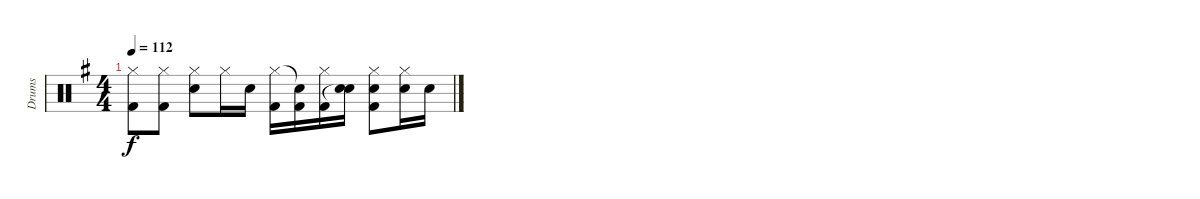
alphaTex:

\track ("Drums" "Drums") {instrument percussion}
\staff {score}
\articulation defaults
\ts (4 4)
\tempo 112
\clef neutral
\ks g
("Hi-Hat (closed)" "Kick (hit) 2").8{dy f} ("Hi-Hat (closed)" "Kick (hit) 2").8 ("Hi-Hat (closed)" "Electric Snare (hit)").8 "Hi-Hat (closed)".16 "Electric Snare (hit)".16 ("Hi-Hat (closed)" "Kick (hit) 2").16 ("Snare (hit)"{t} "Kick (hit) 2").16 ("Hi-Hat (closed)" "Kick (hit) 2").16 ("Electric Snare (hit)" "Snare (hit)"{t}).16 ("Hi-Hat (closed)" "Electric Snare (hit)" "Kick (hit) 2").8 ("Hi-Hat (closed)" "Electric Snare (hit)").16 "Electric Snare (hit)".16
